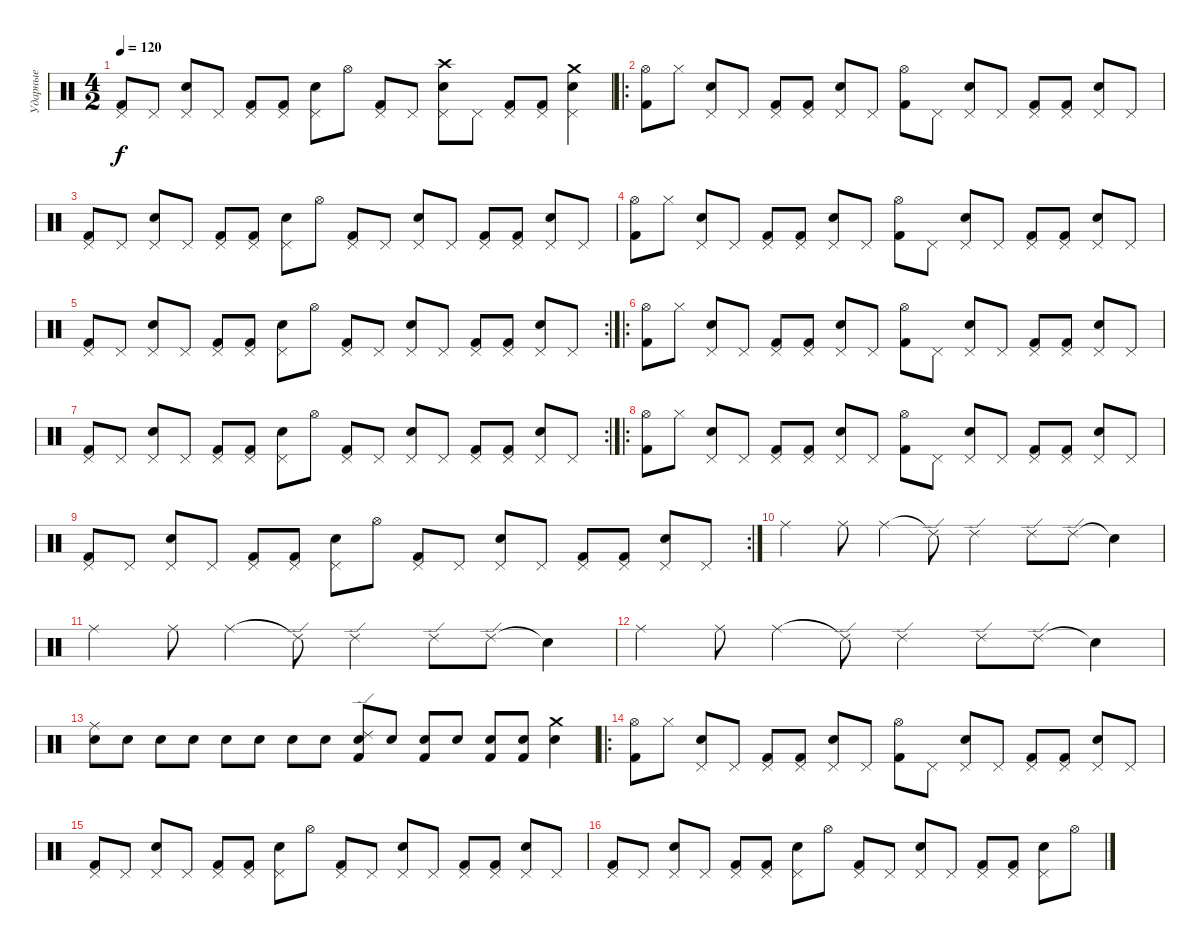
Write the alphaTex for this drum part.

\track ("Ударные" "Ударные") {instrument percussion}
\staff {score}
\articulation defaults
\ts (4 2)
\tempo 120
\clef neutral
\ks c
("Kick (hit) 2" "Pedal Hi-Hat (hit)").8{dy f} "Pedal Hi-Hat (hit)".8 ("Snare (hit) 2" "Pedal Hi-Hat (hit)").8 "Pedal Hi-Hat (hit)".8 ("Kick (hit) 2" "Pedal Hi-Hat (hit)").8 ("Kick (hit) 2" "Pedal Hi-Hat (hit)").8 ("Snare (hit) 2" "Pedal Hi-Hat (hit)").8 "Hi-Hat (open)".8 ("Kick (hit) 2" "Pedal Hi-Hat (hit)").8 "Pedal Hi-Hat (hit)".8 ("Crash high (hit)" "Snare (hit) 2" "Pedal Hi-Hat (hit)").8 "Pedal Hi-Hat (hit)".8 ("Kick (hit) 2" "Pedal Hi-Hat (hit)").8 ("Kick (hit) 2" "Pedal Hi-Hat (hit)").8 ("Crash medium (hit)" "Snare (hit) 2" "Pedal Hi-Hat (hit)").4 |
\ro
("Kick (hit) 2" "Hi-Hat (open)").8 "Hi-Hat (closed)".8 ("Snare (hit) 2" "Pedal Hi-Hat (hit)").8 "Pedal Hi-Hat (hit)".8 ("Kick (hit) 2" "Pedal Hi-Hat (hit)").8 ("Kick (hit) 2" "Pedal Hi-Hat (hit)").8 ("Snare (hit) 2" "Pedal Hi-Hat (hit)").8 "Pedal Hi-Hat (hit)".8 ("Kick (hit) 2" "Hi-Hat (open)").8 "Pedal Hi-Hat (hit)".8 ("Snare (hit) 2" "Pedal Hi-Hat (hit)").8 "Pedal Hi-Hat (hit)".8 ("Kick (hit) 2" "Pedal Hi-Hat (hit)").8 ("Kick (hit) 2" "Pedal Hi-Hat (hit)").8 ("Snare (hit) 2" "Pedal Hi-Hat (hit)").8 "Pedal Hi-Hat (hit)".8 |
("Kick (hit) 2" "Pedal Hi-Hat (hit)").8 "Pedal Hi-Hat (hit)".8 ("Snare (hit) 2" "Pedal Hi-Hat (hit)").8 "Pedal Hi-Hat (hit)".8 ("Kick (hit) 2" "Pedal Hi-Hat (hit)").8 ("Kick (hit) 2" "Pedal Hi-Hat (hit)").8 ("Snare (hit) 2" "Pedal Hi-Hat (hit)").8 "Hi-Hat (open)".8 ("Kick (hit) 2" "Pedal Hi-Hat (hit)").8 "Pedal Hi-Hat (hit)".8 ("Snare (hit) 2" "Pedal Hi-Hat (hit)").8 "Pedal Hi-Hat (hit)".8 ("Kick (hit) 2" "Pedal Hi-Hat (hit)").8 ("Kick (hit) 2" "Pedal Hi-Hat (hit)").8 ("Snare (hit) 2" "Pedal Hi-Hat (hit)").8 "Pedal Hi-Hat (hit)".8 |
("Kick (hit) 2" "Hi-Hat (open)").8 "Hi-Hat (closed)".8 ("Snare (hit) 2" "Pedal Hi-Hat (hit)").8 "Pedal Hi-Hat (hit)".8 ("Kick (hit) 2" "Pedal Hi-Hat (hit)").8 ("Kick (hit) 2" "Pedal Hi-Hat (hit)").8 ("Snare (hit) 2" "Pedal Hi-Hat (hit)").8 "Pedal Hi-Hat (hit)".8 ("Kick (hit) 2" "Hi-Hat (open)").8 "Pedal Hi-Hat (hit)".8 ("Snare (hit) 2" "Pedal Hi-Hat (hit)").8 "Pedal Hi-Hat (hit)".8 ("Kick (hit) 2" "Pedal Hi-Hat (hit)").8 ("Kick (hit) 2" "Pedal Hi-Hat (hit)").8 ("Snare (hit) 2" "Pedal Hi-Hat (hit)").8 "Pedal Hi-Hat (hit)".8 |
\rc 2
("Kick (hit) 2" "Pedal Hi-Hat (hit)").8 "Pedal Hi-Hat (hit)".8 ("Snare (hit) 2" "Pedal Hi-Hat (hit)").8 "Pedal Hi-Hat (hit)".8 ("Kick (hit) 2" "Pedal Hi-Hat (hit)").8 ("Kick (hit) 2" "Pedal Hi-Hat (hit)").8 ("Snare (hit) 2" "Pedal Hi-Hat (hit)").8 "Hi-Hat (open)".8 ("Kick (hit) 2" "Pedal Hi-Hat (hit)").8 "Pedal Hi-Hat (hit)".8 ("Snare (hit) 2" "Pedal Hi-Hat (hit)").8 "Pedal Hi-Hat (hit)".8 ("Kick (hit) 2" "Pedal Hi-Hat (hit)").8 ("Kick (hit) 2" "Pedal Hi-Hat (hit)").8 ("Snare (hit) 2" "Pedal Hi-Hat (hit)").8 "Pedal Hi-Hat (hit)".8 |
\ro
("Kick (hit) 2" "Hi-Hat (open)").8 "Hi-Hat (closed)".8 ("Snare (hit) 2" "Pedal Hi-Hat (hit)").8 "Pedal Hi-Hat (hit)".8 ("Kick (hit) 2" "Pedal Hi-Hat (hit)").8 ("Kick (hit) 2" "Pedal Hi-Hat (hit)").8 ("Snare (hit) 2" "Pedal Hi-Hat (hit)").8 "Pedal Hi-Hat (hit)".8 ("Kick (hit) 2" "Hi-Hat (open)").8 "Pedal Hi-Hat (hit)".8 ("Snare (hit) 2" "Pedal Hi-Hat (hit)").8 "Pedal Hi-Hat (hit)".8 ("Kick (hit) 2" "Pedal Hi-Hat (hit)").8 ("Kick (hit) 2" "Pedal Hi-Hat (hit)").8 ("Snare (hit) 2" "Pedal Hi-Hat (hit)").8 "Pedal Hi-Hat (hit)".8 |
\rc 2
("Kick (hit) 2" "Pedal Hi-Hat (hit)").8 "Pedal Hi-Hat (hit)".8 ("Snare (hit) 2" "Pedal Hi-Hat (hit)").8 "Pedal Hi-Hat (hit)".8 ("Kick (hit) 2" "Pedal Hi-Hat (hit)").8 ("Kick (hit) 2" "Pedal Hi-Hat (hit)").8 ("Snare (hit) 2" "Pedal Hi-Hat (hit)").8 "Hi-Hat (open)".8 ("Kick (hit) 2" "Pedal Hi-Hat (hit)").8 "Pedal Hi-Hat (hit)".8 ("Snare (hit) 2" "Pedal Hi-Hat (hit)").8 "Pedal Hi-Hat (hit)".8 ("Kick (hit) 2" "Pedal Hi-Hat (hit)").8 ("Kick (hit) 2" "Pedal Hi-Hat (hit)").8 ("Snare (hit) 2" "Pedal Hi-Hat (hit)").8 "Pedal Hi-Hat (hit)".8 |
\ro
("Kick (hit) 2" "Hi-Hat (open)").8 "Hi-Hat (closed)".8 ("Snare (hit) 2" "Pedal Hi-Hat (hit)").8 "Pedal Hi-Hat (hit)".8 ("Kick (hit) 2" "Pedal Hi-Hat (hit)").8 ("Kick (hit) 2" "Pedal Hi-Hat (hit)").8 ("Snare (hit) 2" "Pedal Hi-Hat (hit)").8 "Pedal Hi-Hat (hit)".8 ("Kick (hit) 2" "Hi-Hat (open)").8 "Pedal Hi-Hat (hit)".8 ("Snare (hit) 2" "Pedal Hi-Hat (hit)").8 "Pedal Hi-Hat (hit)".8 ("Kick (hit) 2" "Pedal Hi-Hat (hit)").8 ("Kick (hit) 2" "Pedal Hi-Hat (hit)").8 ("Snare (hit) 2" "Pedal Hi-Hat (hit)").8 "Pedal Hi-Hat (hit)".8 |
\rc 2
("Kick (hit) 2" "Pedal Hi-Hat (hit)").8 "Pedal Hi-Hat (hit)".8 ("Snare (hit) 2" "Pedal Hi-Hat (hit)").8 "Pedal Hi-Hat (hit)".8 ("Kick (hit) 2" "Pedal Hi-Hat (hit)").8 ("Kick (hit) 2" "Pedal Hi-Hat (hit)").8 ("Snare (hit) 2" "Pedal Hi-Hat (hit)").8 "Hi-Hat (open)".8 ("Kick (hit) 2" "Pedal Hi-Hat (hit)").8 "Pedal Hi-Hat (hit)".8 ("Snare (hit) 2" "Pedal Hi-Hat (hit)").8 "Pedal Hi-Hat (hit)".8 ("Kick (hit) 2" "Pedal Hi-Hat (hit)").8 ("Kick (hit) 2" "Pedal Hi-Hat (hit)").8 ("Snare (hit) 2" "Pedal Hi-Hat (hit)").8 "Pedal Hi-Hat (hit)".8 |
"Ride (middle)".2 "Ride (middle)".8 "Ride (middle)".4 "Ride (edge) 2"{t}.8 "Ride (edge) 2".2 "Ride (edge) 2".8 "Ride (edge) 2".8 "Snare (hit)"{t}.4 |
"Ride (middle)".2 "Ride (middle)".8 "Ride (middle)".4 "Ride (edge) 2"{t}.8 "Ride (edge) 2".2 "Ride (edge) 2".8 "Ride (edge) 2".8 "Snare (hit)"{t}.4 |
"Ride (middle)".2 "Ride (middle)".8 "Ride (middle)".4 "Ride (edge) 2"{t}.8 "Ride (edge) 2".2 "Ride (edge) 2".8 "Ride (edge) 2".8 "Snare (hit)"{t}.4 |
("Ride (middle)" "Snare (hit) 2").8 "Snare (hit) 2".8 "Snare (hit) 2".8 "Snare (hit) 2".8 "Snare (hit) 2".8 "Snare (hit) 2".8 "Snare (hit) 2".8 "Snare (hit) 2".8 ("Ride (edge) 2" "Kick (hit) 2" "Snare (hit) 2").8 "Snare (hit) 2".8 ("Kick (hit) 2" "Snare (hit) 2").8 "Snare (hit) 2".8 ("Kick (hit) 2" "Snare (hit) 2").8 ("Kick (hit) 2" "Snare (hit) 2").8 ("Crash medium (hit)" "Snare (hit) 2").4 |
\ro
("Kick (hit) 2" "Hi-Hat (open)").8 "Hi-Hat (closed)".8 ("Snare (hit) 2" "Pedal Hi-Hat (hit)").8 "Pedal Hi-Hat (hit)".8 ("Kick (hit) 2" "Pedal Hi-Hat (hit)").8 ("Kick (hit) 2" "Pedal Hi-Hat (hit)").8 ("Snare (hit) 2" "Pedal Hi-Hat (hit)").8 "Pedal Hi-Hat (hit)".8 ("Kick (hit) 2" "Hi-Hat (open)").8 "Pedal Hi-Hat (hit)".8 ("Snare (hit) 2" "Pedal Hi-Hat (hit)").8 "Pedal Hi-Hat (hit)".8 ("Kick (hit) 2" "Pedal Hi-Hat (hit)").8 ("Kick (hit) 2" "Pedal Hi-Hat (hit)").8 ("Snare (hit) 2" "Pedal Hi-Hat (hit)").8 "Pedal Hi-Hat (hit)".8 |
("Kick (hit) 2" "Pedal Hi-Hat (hit)").8 "Pedal Hi-Hat (hit)".8 ("Snare (hit) 2" "Pedal Hi-Hat (hit)").8 "Pedal Hi-Hat (hit)".8 ("Kick (hit) 2" "Pedal Hi-Hat (hit)").8 ("Kick (hit) 2" "Pedal Hi-Hat (hit)").8 ("Snare (hit) 2" "Pedal Hi-Hat (hit)").8 "Hi-Hat (open)".8 ("Kick (hit) 2" "Pedal Hi-Hat (hit)").8 "Pedal Hi-Hat (hit)".8 ("Snare (hit) 2" "Pedal Hi-Hat (hit)").8 "Pedal Hi-Hat (hit)".8 ("Kick (hit) 2" "Pedal Hi-Hat (hit)").8 ("Kick (hit) 2" "Pedal Hi-Hat (hit)").8 ("Snare (hit) 2" "Pedal Hi-Hat (hit)").8 "Pedal Hi-Hat (hit)".8 |
("Kick (hit) 2" "Pedal Hi-Hat (hit)").8 "Pedal Hi-Hat (hit)".8 ("Snare (hit) 2" "Pedal Hi-Hat (hit)").8 "Pedal Hi-Hat (hit)".8 ("Kick (hit) 2" "Pedal Hi-Hat (hit)").8 ("Kick (hit) 2" "Pedal Hi-Hat (hit)").8 ("Snare (hit) 2" "Pedal Hi-Hat (hit)").8 "Hi-Hat (open)".8 ("Kick (hit) 2" "Pedal Hi-Hat (hit)").8 "Pedal Hi-Hat (hit)".8 ("Snare (hit) 2" "Pedal Hi-Hat (hit)").8 "Pedal Hi-Hat (hit)".8 ("Kick (hit) 2" "Pedal Hi-Hat (hit)").8 ("Kick (hit) 2" "Pedal Hi-Hat (hit)").8 ("Snare (hit) 2" "Pedal Hi-Hat (hit)").8 "Hi-Hat (open)".8
